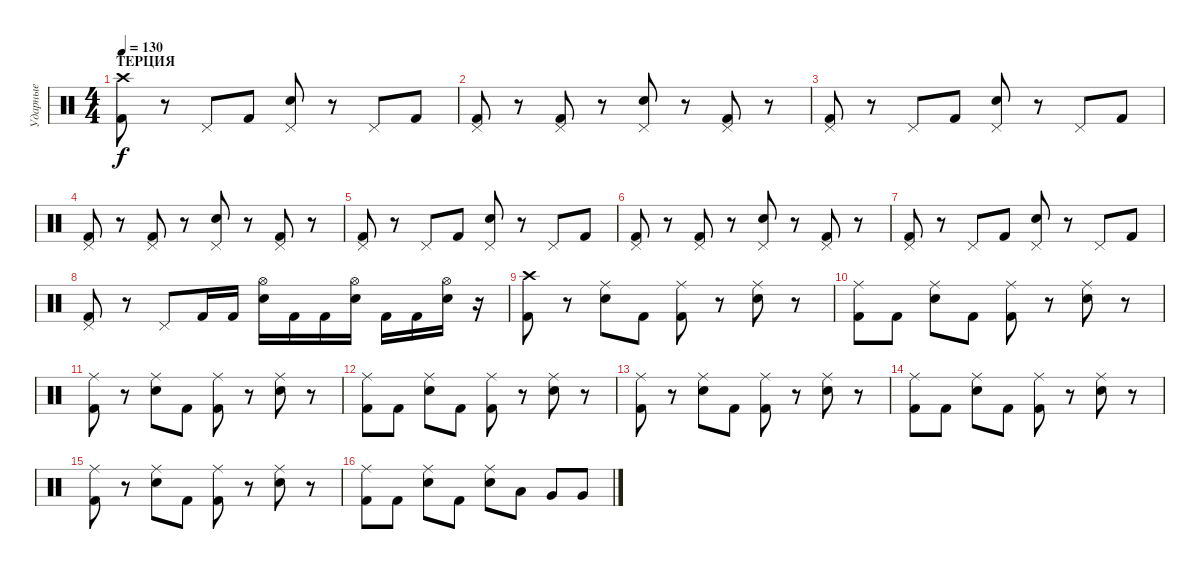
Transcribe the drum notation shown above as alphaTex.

\track ("Ударные" "Ударные") {instrument percussion}
\staff {score}
\articulation defaults
\ts (4 4)
\section ("" "ТЕРЦИЯ")
\tempo 130
\clef neutral
\ks c
("Kick (hit) 2" "Crash high (hit)").8{dy f} r.8 "Pedal Hi-Hat (hit)".8 "Kick (hit) 2".8 ("Snare (hit) 2" "Pedal Hi-Hat (hit)").8 r.8 "Pedal Hi-Hat (hit)".8 "Kick (hit) 2".8 |
("Kick (hit) 2" "Pedal Hi-Hat (hit)").8 r.8 ("Kick (hit) 2" "Pedal Hi-Hat (hit)").8 r.8 ("Snare (hit) 2" "Pedal Hi-Hat (hit)").8 r.8 ("Kick (hit) 2" "Pedal Hi-Hat (hit)").8 r.8 |
("Kick (hit) 2" "Pedal Hi-Hat (hit)").8 r.8 "Pedal Hi-Hat (hit)".8 "Kick (hit) 2".8 ("Snare (hit) 2" "Pedal Hi-Hat (hit)").8 r.8 "Pedal Hi-Hat (hit)".8 "Kick (hit) 2".8 |
("Kick (hit) 2" "Pedal Hi-Hat (hit)").8 r.8 ("Kick (hit) 2" "Pedal Hi-Hat (hit)").8 r.8 ("Snare (hit) 2" "Pedal Hi-Hat (hit)").8 r.8 ("Kick (hit) 2" "Pedal Hi-Hat (hit)").8 r.8 |
("Kick (hit) 2" "Pedal Hi-Hat (hit)").8 r.8 "Pedal Hi-Hat (hit)".8 "Kick (hit) 2".8 ("Snare (hit) 2" "Pedal Hi-Hat (hit)").8 r.8 "Pedal Hi-Hat (hit)".8 "Kick (hit) 2".8 |
("Kick (hit) 2" "Pedal Hi-Hat (hit)").8 r.8 ("Kick (hit) 2" "Pedal Hi-Hat (hit)").8 r.8 ("Snare (hit) 2" "Pedal Hi-Hat (hit)").8 r.8 ("Kick (hit) 2" "Pedal Hi-Hat (hit)").8 r.8 |
("Kick (hit) 2" "Pedal Hi-Hat (hit)").8 r.8 "Pedal Hi-Hat (hit)".8 "Kick (hit) 2".8 ("Snare (hit) 2" "Pedal Hi-Hat (hit)").8 r.8 "Pedal Hi-Hat (hit)".8 "Kick (hit) 2".8 |
("Kick (hit) 2" "Pedal Hi-Hat (hit)").8 r.8 "Pedal Hi-Hat (hit)".8 "Kick (hit) 2".16 "Kick (hit) 2".16 ("Snare (hit) 2" "Hi-Hat (open)").16 "Kick (hit) 2".16 "Kick (hit) 2".16 ("Snare (hit) 2" "Hi-Hat (open)").16 "Kick (hit) 2".16 "Kick (hit) 2".16 ("Snare (hit) 2" "Hi-Hat (open)").16 r.16 |
("Kick (hit) 2" "Crash high (hit)").8 r.8 ("Snare (hit) 2" "Ride (middle)").8 "Kick (hit) 2".8 ("Kick (hit) 2" "Ride (middle)").8 r.8 ("Snare (hit) 2" "Ride (middle)").8 r.8 |
("Kick (hit) 2" "Ride (middle)").8 "Kick (hit) 2".8 ("Snare (hit) 2" "Ride (middle)").8 "Kick (hit) 2".8 ("Kick (hit) 2" "Ride (middle)").8 r.8 ("Snare (hit) 2" "Ride (middle)").8 r.8 |
("Kick (hit) 2" "Ride (middle)").8 r.8 ("Snare (hit) 2" "Ride (middle)").8 "Kick (hit) 2".8 ("Kick (hit) 2" "Ride (middle)").8 r.8 ("Snare (hit) 2" "Ride (middle)").8 r.8 |
("Kick (hit) 2" "Ride (middle)").8 "Kick (hit) 2".8 ("Snare (hit) 2" "Ride (middle)").8 "Kick (hit) 2".8 ("Kick (hit) 2" "Ride (middle)").8 r.8 ("Snare (hit) 2" "Ride (middle)").8 r.8 |
("Kick (hit) 2" "Ride (middle)").8 r.8 ("Snare (hit) 2" "Ride (middle)").8 "Kick (hit) 2".8 ("Kick (hit) 2" "Ride (middle)").8 r.8 ("Snare (hit) 2" "Ride (middle)").8 r.8 |
("Kick (hit) 2" "Ride (middle)").8 "Kick (hit) 2".8 ("Snare (hit) 2" "Ride (middle)").8 "Kick (hit) 2".8 ("Kick (hit) 2" "Ride (middle)").8 r.8 ("Snare (hit) 2" "Ride (middle)").8 r.8 |
("Kick (hit) 2" "Ride (middle)").8 r.8 ("Snare (hit) 2" "Ride (middle)").8 "Kick (hit) 2".8 ("Kick (hit) 2" "Ride (middle)").8 r.8 ("Snare (hit) 2" "Ride (middle)").8 r.8 |
("Kick (hit) 2" "Ride (middle)").8 "Kick (hit) 2".8 ("Snare (hit) 2" "Ride (middle)").8 "Kick (hit) 2".8 ("Snare (hit) 2" "Ride (middle)").8 "Low Tom (hit)".8 "Very Low Tom (hit)".8 "Very Low Tom (hit)".8
